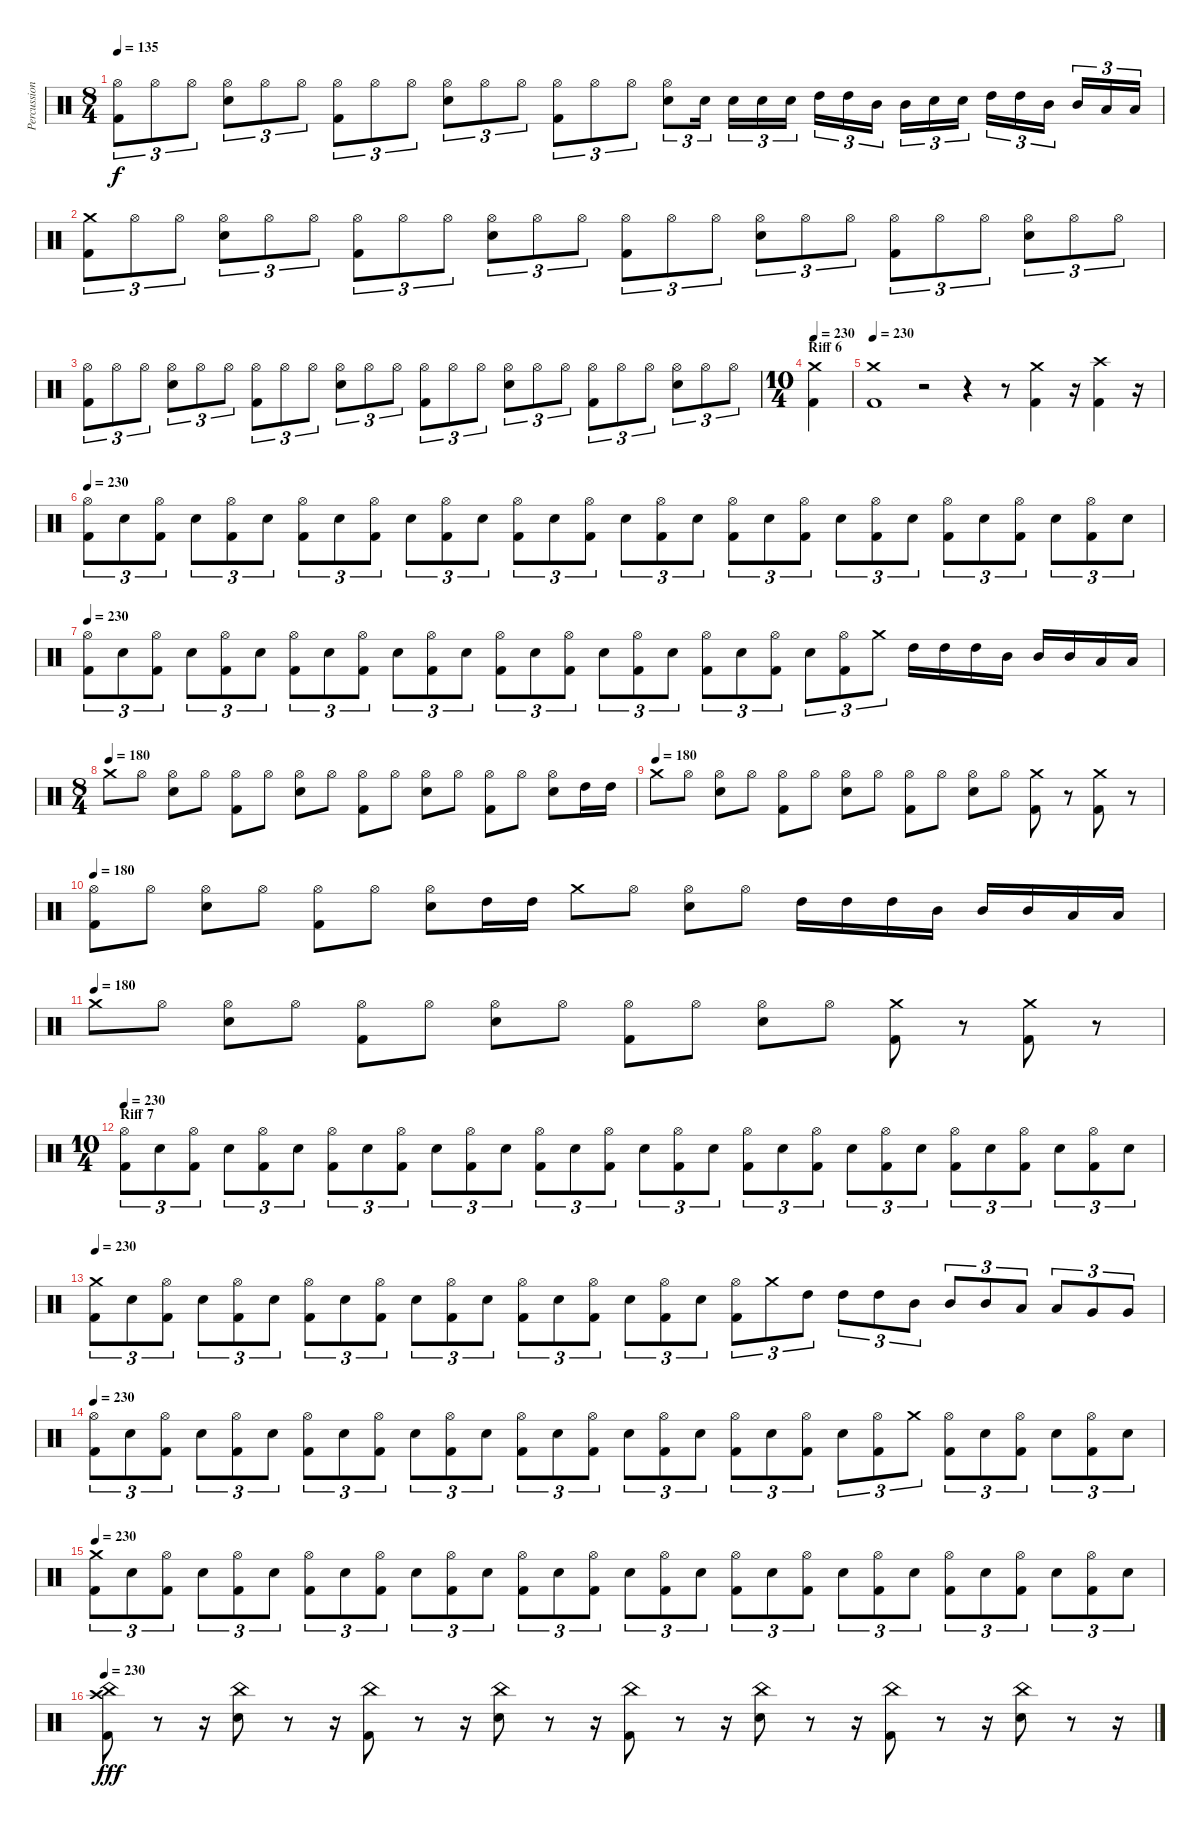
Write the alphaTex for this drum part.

\track ("Percussion" "Percussion") {instrument percussion}
\staff {score}
\articulation defaults
\ts (8 4)
\tempo 135
\clef neutral
\ks c
("Hi-Hat (open)" "Kick (hit) 2").8{tu (3 2) dy f} "Hi-Hat (open)".8{tu (3 2)} "Hi-Hat (open)".8{tu (3 2)} ("Hi-Hat (open)" "Electric Snare (hit)").8{tu (3 2)} "Hi-Hat (open)".8{tu (3 2)} "Hi-Hat (open)".8{tu (3 2)} ("Hi-Hat (open)" "Kick (hit) 2").8{tu (3 2)} "Hi-Hat (open)".8{tu (3 2)} "Hi-Hat (open)".8{tu (3 2)} ("Hi-Hat (open)" "Electric Snare (hit)").8{tu (3 2)} "Hi-Hat (open)".8{tu (3 2)} "Hi-Hat (open)".8{tu (3 2)} ("Hi-Hat (open)" "Kick (hit) 2").8{tu (3 2)} "Hi-Hat (open)".8{tu (3 2)} "Hi-Hat (open)".8{tu (3 2)} ("Hi-Hat (open)" "Electric Snare (hit)").8{tu (3 2)} "Electric Snare (hit)".16{tu (3 2)} "Electric Snare (hit)".16{tu (3 2)} "Electric Snare (hit)".16{tu (3 2)} "Electric Snare (hit)".16{tu (3 2)} "High Tom (hit)".16{tu (3 2)} "High Tom (hit)".16{tu (3 2)} "Mid Tom (hit)".16{tu (3 2)} "Mid Tom (hit)".16{tu (3 2)} "Electric Snare (hit)".16{tu (3 2)} "Electric Snare (hit)".16{tu (3 2)} "High Tom (hit)".16{tu (3 2)} "High Tom (hit)".16{tu (3 2)} "Mid Tom (hit)".16{tu (3 2)} "Mid Tom (hit)".16{tu (3 2)} "Low Tom (hit)".16{tu (3 2)} "Low Tom (hit)".16{tu (3 2)} |
("Crash medium (hit)" "Kick (hit) 2").8{tu (3 2)} "Hi-Hat (open)".8{tu (3 2)} "Hi-Hat (open)".8{tu (3 2)} ("Hi-Hat (open)" "Electric Snare (hit)").8{tu (3 2)} "Hi-Hat (open)".8{tu (3 2)} "Hi-Hat (open)".8{tu (3 2)} ("Hi-Hat (open)" "Kick (hit) 2").8{tu (3 2)} "Hi-Hat (open)".8{tu (3 2)} "Hi-Hat (open)".8{tu (3 2)} ("Hi-Hat (open)" "Electric Snare (hit)").8{tu (3 2)} "Hi-Hat (open)".8{tu (3 2)} "Hi-Hat (open)".8{tu (3 2)} ("Hi-Hat (open)" "Kick (hit) 2").8{tu (3 2)} "Hi-Hat (open)".8{tu (3 2)} "Hi-Hat (open)".8{tu (3 2)} ("Hi-Hat (open)" "Electric Snare (hit)").8{tu (3 2)} "Hi-Hat (open)".8{tu (3 2)} "Hi-Hat (open)".8{tu (3 2)} ("Hi-Hat (open)" "Kick (hit) 2").8{tu (3 2)} "Hi-Hat (open)".8{tu (3 2)} "Hi-Hat (open)".8{tu (3 2)} ("Hi-Hat (open)" "Electric Snare (hit)").8{tu (3 2)} "Hi-Hat (open)".8{tu (3 2)} "Hi-Hat (open)".8{tu (3 2)} |
("Hi-Hat (open)" "Kick (hit) 2").8{tu (3 2)} "Hi-Hat (open)".8{tu (3 2)} "Hi-Hat (open)".8{tu (3 2)} ("Hi-Hat (open)" "Electric Snare (hit)").8{tu (3 2)} "Hi-Hat (open)".8{tu (3 2)} "Hi-Hat (open)".8{tu (3 2)} ("Hi-Hat (open)" "Kick (hit) 2").8{tu (3 2)} "Hi-Hat (open)".8{tu (3 2)} "Hi-Hat (open)".8{tu (3 2)} ("Hi-Hat (open)" "Electric Snare (hit)").8{tu (3 2)} "Hi-Hat (open)".8{tu (3 2)} "Hi-Hat (open)".8{tu (3 2)} ("Hi-Hat (open)" "Kick (hit) 2").8{tu (3 2)} "Hi-Hat (open)".8{tu (3 2)} "Hi-Hat (open)".8{tu (3 2)} ("Hi-Hat (open)" "Electric Snare (hit)").8{tu (3 2)} "Hi-Hat (open)".8{tu (3 2)} "Hi-Hat (open)".8{tu (3 2)} ("Hi-Hat (open)" "Kick (hit) 2").8{tu (3 2)} "Hi-Hat (open)".8{tu (3 2)} "Hi-Hat (open)".8{tu (3 2)} ("Hi-Hat (open)" "Electric Snare (hit)").8{tu (3 2)} "Hi-Hat (open)".8{tu (3 2)} "Hi-Hat (open)".8{tu (3 2)} |
\ts (10 4)
\section ("" "Riff 6")
\tempo 230
("Crash medium (hit)" "Kick (hit) 2").4 |
\tempo 230
("Crash medium (hit)" "Kick (hit) 2").1 r.2 r.4 r.8 ("Crash medium (hit)" "Kick (hit) 2").4 r.16 ("Crash high (hit)" "Kick (hit) 2").4 r.16 |
\tempo 230
("Hi-Hat (open)" "Kick (hit) 2").8{tu (3 2)} "Electric Snare (hit)".8{tu (3 2)} ("Hi-Hat (open)" "Kick (hit) 2").8{tu (3 2)} "Electric Snare (hit)".8{tu (3 2)} ("Hi-Hat (open)" "Kick (hit) 2").8{tu (3 2)} "Electric Snare (hit)".8{tu (3 2)} ("Hi-Hat (open)" "Kick (hit) 2").8{tu (3 2)} "Electric Snare (hit)".8{tu (3 2)} ("Hi-Hat (open)" "Kick (hit) 2").8{tu (3 2)} "Electric Snare (hit)".8{tu (3 2)} ("Hi-Hat (open)" "Kick (hit) 2").8{tu (3 2)} "Electric Snare (hit)".8{tu (3 2)} ("Hi-Hat (open)" "Kick (hit) 2").8{tu (3 2)} "Electric Snare (hit)".8{tu (3 2)} ("Hi-Hat (open)" "Kick (hit) 2").8{tu (3 2)} "Electric Snare (hit)".8{tu (3 2)} ("Hi-Hat (open)" "Kick (hit) 2").8{tu (3 2)} "Electric Snare (hit)".8{tu (3 2)} ("Hi-Hat (open)" "Kick (hit) 2").8{tu (3 2)} "Electric Snare (hit)".8{tu (3 2)} ("Hi-Hat (open)" "Kick (hit) 2").8{tu (3 2)} "Electric Snare (hit)".8{tu (3 2)} ("Hi-Hat (open)" "Kick (hit) 2").8{tu (3 2)} "Electric Snare (hit)".8{tu (3 2)} ("Hi-Hat (open)" "Kick (hit) 2").8{tu (3 2)} "Electric Snare (hit)".8{tu (3 2)} ("Hi-Hat (open)" "Kick (hit) 2").8{tu (3 2)} "Electric Snare (hit)".8{tu (3 2)} ("Hi-Hat (open)" "Kick (hit) 2").8{tu (3 2)} "Electric Snare (hit)".8{tu (3 2)} |
\tempo 230
("Hi-Hat (open)" "Kick (hit) 2").8{tu (3 2)} "Electric Snare (hit)".8{tu (3 2)} ("Hi-Hat (open)" "Kick (hit) 2").8{tu (3 2)} "Electric Snare (hit)".8{tu (3 2)} ("Hi-Hat (open)" "Kick (hit) 2").8{tu (3 2)} "Electric Snare (hit)".8{tu (3 2)} ("Hi-Hat (open)" "Kick (hit) 2").8{tu (3 2)} "Electric Snare (hit)".8{tu (3 2)} ("Hi-Hat (open)" "Kick (hit) 2").8{tu (3 2)} "Electric Snare (hit)".8{tu (3 2)} ("Hi-Hat (open)" "Kick (hit) 2").8{tu (3 2)} "Electric Snare (hit)".8{tu (3 2)} ("Hi-Hat (open)" "Kick (hit) 2").8{tu (3 2)} "Electric Snare (hit)".8{tu (3 2)} ("Hi-Hat (open)" "Kick (hit) 2").8{tu (3 2)} "Electric Snare (hit)".8{tu (3 2)} ("Hi-Hat (open)" "Kick (hit) 2").8{tu (3 2)} "Electric Snare (hit)".8{tu (3 2)} ("Hi-Hat (open)" "Kick (hit) 2").8{tu (3 2)} "Electric Snare (hit)".8{tu (3 2)} ("Hi-Hat (open)" "Kick (hit) 2").8{tu (3 2)} "Electric Snare (hit)".8{tu (3 2)} ("Hi-Hat (open)" "Kick (hit) 2").8{tu (3 2)} "Crash medium (hit)".8{tu (3 2)} "High Tom (hit)".16 "High Tom (hit)".16 "High Tom (hit)".16 "Mid Tom (hit)".16 "Mid Tom (hit)".16 "Mid Tom (hit)".16 "Low Tom (hit)".16 "Low Tom (hit)".16 |
\ts (8 4)
\tempo (180)
"Crash medium (hit)".8 "Hi-Hat (open)".8 ("Hi-Hat (open)" "Electric Snare (hit)").8 "Hi-Hat (open)".8 ("Hi-Hat (open)" "Kick (hit) 2").8 "Hi-Hat (open)".8 ("Hi-Hat (open)" "Electric Snare (hit)").8 "Hi-Hat (open)".8 ("Hi-Hat (open)" "Kick (hit) 2").8 "Hi-Hat (open)".8 ("Hi-Hat (open)" "Electric Snare (hit)").8 "Hi-Hat (open)".8 ("Hi-Hat (open)" "Kick (hit) 2").8 "Hi-Hat (open)".8 ("Hi-Hat (open)" "Electric Snare (hit)").8 "High Tom (hit)".16 "High Tom (hit)".16 |
\tempo (180)
"Crash medium (hit)".8 "Hi-Hat (open)".8 ("Hi-Hat (open)" "Electric Snare (hit)").8 "Hi-Hat (open)".8 ("Hi-Hat (open)" "Kick (hit) 2").8 "Hi-Hat (open)".8 ("Hi-Hat (open)" "Electric Snare (hit)").8 "Hi-Hat (open)".8 ("Hi-Hat (open)" "Kick (hit) 2").8 "Hi-Hat (open)".8 ("Hi-Hat (open)" "Electric Snare (hit)").8 "Hi-Hat (open)".8 ("Crash medium (hit)" "Kick (hit) 2").8 r.8 ("Crash medium (hit)" "Kick (hit) 2").8 r.8 |
\tempo 180
("Hi-Hat (open)" "Kick (hit) 2").8 "Hi-Hat (open)".8 ("Hi-Hat (open)" "Electric Snare (hit)").8 "Hi-Hat (open)".8 ("Hi-Hat (open)" "Kick (hit) 2").8 "Hi-Hat (open)".8 ("Hi-Hat (open)" "Electric Snare (hit)").8 "High Tom (hit)".16 "High Tom (hit)".16 "Crash medium (hit)".8 "Hi-Hat (open)".8 ("Hi-Hat (open)" "Electric Snare (hit)").8 "Hi-Hat (open)".8 "High Tom (hit)".16 "High Tom (hit)".16 "High Tom (hit)".16 "Mid Tom (hit)".16 "Mid Tom (hit)".16 "Mid Tom (hit)".16 "Low Tom (hit)".16 "Low Tom (hit)".16 |
\tempo (180)
"Crash medium (hit)".8 "Hi-Hat (open)".8 ("Hi-Hat (open)" "Electric Snare (hit)").8 "Hi-Hat (open)".8 ("Hi-Hat (open)" "Kick (hit) 2").8 "Hi-Hat (open)".8 ("Hi-Hat (open)" "Electric Snare (hit)").8 "Hi-Hat (open)".8 ("Hi-Hat (open)" "Kick (hit) 2").8 "Hi-Hat (open)".8 ("Hi-Hat (open)" "Electric Snare (hit)").8 "Hi-Hat (open)".8 ("Crash medium (hit)" "Kick (hit) 2").8 r.8 ("Crash medium (hit)" "Kick (hit) 2").8 r.8 |
\ts (10 4)
\section ("" "Riff 7")
\tempo 230
("Hi-Hat (open)" "Kick (hit) 2").8{tu (3 2)} "Electric Snare (hit)".8{tu (3 2)} ("Hi-Hat (open)" "Kick (hit) 2").8{tu (3 2)} "Electric Snare (hit)".8{tu (3 2)} ("Hi-Hat (open)" "Kick (hit) 2").8{tu (3 2)} "Electric Snare (hit)".8{tu (3 2)} ("Hi-Hat (open)" "Kick (hit) 2").8{tu (3 2)} "Electric Snare (hit)".8{tu (3 2)} ("Hi-Hat (open)" "Kick (hit) 2").8{tu (3 2)} "Electric Snare (hit)".8{tu (3 2)} ("Hi-Hat (open)" "Kick (hit) 2").8{tu (3 2)} "Electric Snare (hit)".8{tu (3 2)} ("Hi-Hat (open)" "Kick (hit) 2").8{tu (3 2)} "Electric Snare (hit)".8{tu (3 2)} ("Hi-Hat (open)" "Kick (hit) 2").8{tu (3 2)} "Electric Snare (hit)".8{tu (3 2)} ("Hi-Hat (open)" "Kick (hit) 2").8{tu (3 2)} "Electric Snare (hit)".8{tu (3 2)} ("Hi-Hat (open)" "Kick (hit) 2").8{tu (3 2)} "Electric Snare (hit)".8{tu (3 2)} ("Hi-Hat (open)" "Kick (hit) 2").8{tu (3 2)} "Electric Snare (hit)".8{tu (3 2)} ("Hi-Hat (open)" "Kick (hit) 2").8{tu (3 2)} "Electric Snare (hit)".8{tu (3 2)} ("Hi-Hat (open)" "Kick (hit) 2").8{tu (3 2)} "Electric Snare (hit)".8{tu (3 2)} ("Hi-Hat (open)" "Kick (hit) 2").8{tu (3 2)} "Electric Snare (hit)".8{tu (3 2)} ("Hi-Hat (open)" "Kick (hit) 2").8{tu (3 2)} "Electric Snare (hit)".8{tu (3 2)} |
\tempo 230
("Crash medium (hit)" "Kick (hit) 2").8{tu (3 2)} "Electric Snare (hit)".8{tu (3 2)} ("Hi-Hat (open)" "Kick (hit) 2").8{tu (3 2)} "Electric Snare (hit)".8{tu (3 2)} ("Hi-Hat (open)" "Kick (hit) 2").8{tu (3 2)} "Electric Snare (hit)".8{tu (3 2)} ("Hi-Hat (open)" "Kick (hit) 2").8{tu (3 2)} "Electric Snare (hit)".8{tu (3 2)} ("Hi-Hat (open)" "Kick (hit) 2").8{tu (3 2)} "Electric Snare (hit)".8{tu (3 2)} ("Hi-Hat (open)" "Kick (hit) 2").8{tu (3 2)} "Electric Snare (hit)".8{tu (3 2)} ("Hi-Hat (open)" "Kick (hit) 2").8{tu (3 2)} "Electric Snare (hit)".8{tu (3 2)} ("Hi-Hat (open)" "Kick (hit) 2").8{tu (3 2)} "Electric Snare (hit)".8{tu (3 2)} ("Hi-Hat (open)" "Kick (hit) 2").8{tu (3 2)} "Electric Snare (hit)".8{tu (3 2)} ("Hi-Hat (open)" "Kick (hit) 2").8{tu (3 2)} "Crash medium (hit)".8{tu (3 2)} "High Tom (hit)".8{tu (3 2)} "High Tom (hit)".8{tu (3 2)} "High Tom (hit)".8{tu (3 2)} "Mid Tom (hit)".8{tu (3 2)} "Mid Tom (hit)".8{tu (3 2)} "Mid Tom (hit)".8{tu (3 2)} "Low Tom (hit)".8{tu (3 2)} "Low Tom (hit)".8{tu (3 2)} "Very Low Tom (hit)".8{tu (3 2)} "Very Low Tom (hit)".8{tu (3 2)} |
\tempo 230
("Hi-Hat (open)" "Kick (hit) 2").8{tu (3 2)} "Electric Snare (hit)".8{tu (3 2)} ("Hi-Hat (open)" "Kick (hit) 2").8{tu (3 2)} "Electric Snare (hit)".8{tu (3 2)} ("Hi-Hat (open)" "Kick (hit) 2").8{tu (3 2)} "Electric Snare (hit)".8{tu (3 2)} ("Hi-Hat (open)" "Kick (hit) 2").8{tu (3 2)} "Electric Snare (hit)".8{tu (3 2)} ("Hi-Hat (open)" "Kick (hit) 2").8{tu (3 2)} "Electric Snare (hit)".8{tu (3 2)} ("Hi-Hat (open)" "Kick (hit) 2").8{tu (3 2)} "Electric Snare (hit)".8{tu (3 2)} ("Hi-Hat (open)" "Kick (hit) 2").8{tu (3 2)} "Electric Snare (hit)".8{tu (3 2)} ("Hi-Hat (open)" "Kick (hit) 2").8{tu (3 2)} "Electric Snare (hit)".8{tu (3 2)} ("Hi-Hat (open)" "Kick (hit) 2").8{tu (3 2)} "Electric Snare (hit)".8{tu (3 2)} ("Hi-Hat (open)" "Kick (hit) 2").8{tu (3 2)} "Electric Snare (hit)".8{tu (3 2)} ("Hi-Hat (open)" "Kick (hit) 2").8{tu (3 2)} "Electric Snare (hit)".8{tu (3 2)} ("Hi-Hat (open)" "Kick (hit) 2").8{tu (3 2)} "Crash medium (hit)".8{tu (3 2)} ("Hi-Hat (open)" "Kick (hit) 2").8{tu (3 2)} "Electric Snare (hit)".8{tu (3 2)} ("Hi-Hat (open)" "Kick (hit) 2").8{tu (3 2)} "Electric Snare (hit)".8{tu (3 2)} ("Hi-Hat (open)" "Kick (hit) 2").8{tu (3 2)} "Electric Snare (hit)".8{tu (3 2)} |
\tempo 230
("Crash medium (hit)" "Kick (hit) 2").8{tu (3 2)} "Electric Snare (hit)".8{tu (3 2)} ("Hi-Hat (open)" "Kick (hit) 2").8{tu (3 2)} "Electric Snare (hit)".8{tu (3 2)} ("Hi-Hat (open)" "Kick (hit) 2").8{tu (3 2)} "Electric Snare (hit)".8{tu (3 2)} ("Hi-Hat (open)" "Kick (hit) 2").8{tu (3 2)} "Electric Snare (hit)".8{tu (3 2)} ("Hi-Hat (open)" "Kick (hit) 2").8{tu (3 2)} "Electric Snare (hit)".8{tu (3 2)} ("Hi-Hat (open)" "Kick (hit) 2").8{tu (3 2)} "Electric Snare (hit)".8{tu (3 2)} ("Hi-Hat (open)" "Kick (hit) 2").8{tu (3 2)} "Electric Snare (hit)".8{tu (3 2)} ("Hi-Hat (open)" "Kick (hit) 2").8{tu (3 2)} "Electric Snare (hit)".8{tu (3 2)} ("Hi-Hat (open)" "Kick (hit) 2").8{tu (3 2)} "Electric Snare (hit)".8{tu (3 2)} ("Hi-Hat (open)" "Kick (hit) 2").8{tu (3 2)} "Electric Snare (hit)".8{tu (3 2)} ("Hi-Hat (open)" "Kick (hit) 2").8{tu (3 2)} "Electric Snare (hit)".8{tu (3 2)} ("Hi-Hat (open)" "Kick (hit) 2").8{tu (3 2)} "Electric Snare (hit)".8{tu (3 2)} ("Hi-Hat (open)" "Kick (hit) 2").8{tu (3 2)} "Electric Snare (hit)".8{tu (3 2)} ("Hi-Hat (open)" "Kick (hit) 2").8{tu (3 2)} "Electric Snare (hit)".8{tu (3 2)} ("Hi-Hat (open)" "Kick (hit) 2").8{tu (3 2)} "Electric Snare (hit)".8{tu (3 2)} |
\tempo 230
("China (hit)" "Crash high (hit)" "Kick (hit) 2").8{dy fff} r.8 r.16 ("China (hit)" "Electric Snare (hit)").8 r.8 r.16 ("China (hit)" "Kick (hit) 2").8 r.8 r.16 ("China (hit)" "Electric Snare (hit)").8 r.8 r.16 ("China (hit)" "Kick (hit) 2").8 r.8 r.16 ("China (hit)" "Electric Snare (hit)").8 r.8 r.16 ("China (hit)" "Kick (hit) 2").8 r.8 r.16 ("China (hit)" "Electric Snare (hit)").8 r.8 r.16
